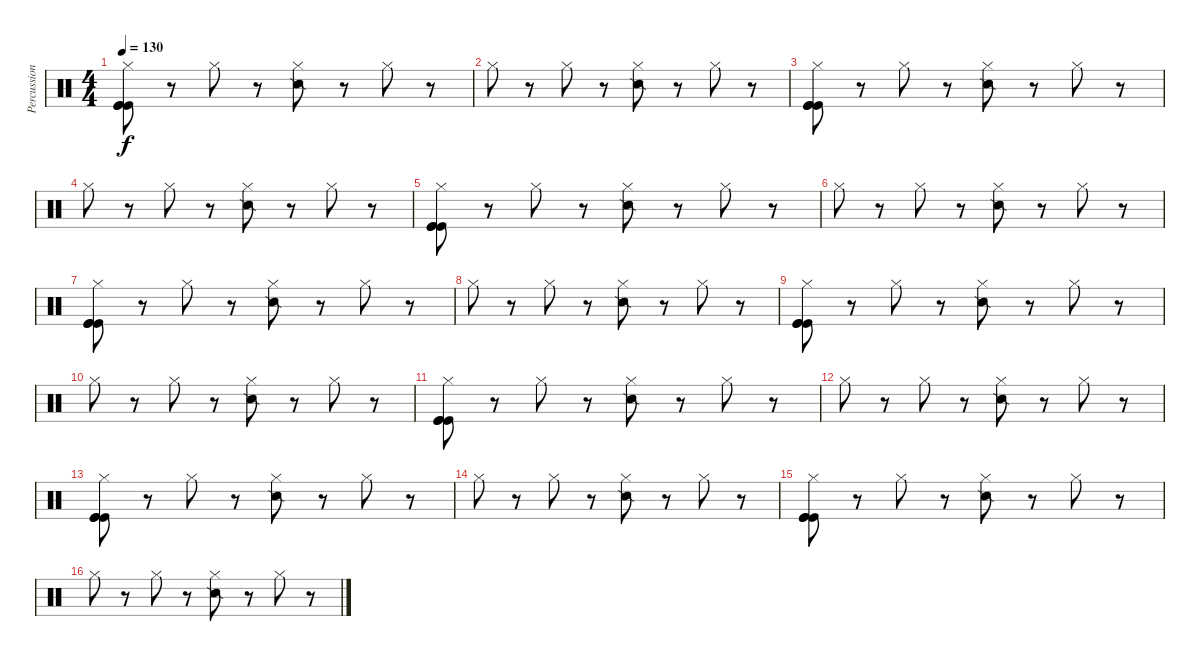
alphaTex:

\track ("Percussion" "Percussion") {instrument percussion}
\staff {score}
\articulation defaults
\ts (4 4)
\tempo 130
\clef neutral
\ks c
("Hi-Hat (closed)" "Kick (hit)" "Kick (hit)" "Kick (hit)").8{dy f} r.8 "Hi-Hat (closed)".8 r.8 ("Hi-Hat (closed)" "Snare (side stick) 2").8 r.8 "Hi-Hat (closed)".8 r.8 |
"Hi-Hat (closed)".8 r.8 "Hi-Hat (closed)".8 r.8 ("Hi-Hat (closed)" "Snare (side stick) 2").8 r.8 "Hi-Hat (closed)".8 r.8 |
("Hi-Hat (closed)" "Kick (hit)" "Kick (hit)" "Kick (hit)").8 r.8 "Hi-Hat (closed)".8 r.8 ("Hi-Hat (closed)" "Snare (side stick) 2").8 r.8 "Hi-Hat (closed)".8 r.8 |
"Hi-Hat (closed)".8 r.8 "Hi-Hat (closed)".8 r.8 ("Hi-Hat (closed)" "Snare (side stick) 2").8 r.8 "Hi-Hat (closed)".8 r.8 |
("Hi-Hat (closed)" "Kick (hit)" "Kick (hit)" "Kick (hit)").8 r.8 "Hi-Hat (closed)".8 r.8 ("Hi-Hat (closed)" "Snare (side stick) 2").8 r.8 "Hi-Hat (closed)".8 r.8 |
"Hi-Hat (closed)".8 r.8 "Hi-Hat (closed)".8 r.8 ("Hi-Hat (closed)" "Snare (side stick) 2").8 r.8 "Hi-Hat (closed)".8 r.8 |
("Hi-Hat (closed)" "Kick (hit)" "Kick (hit)" "Kick (hit)").8 r.8 "Hi-Hat (closed)".8 r.8 ("Hi-Hat (closed)" "Snare (side stick) 2").8 r.8 "Hi-Hat (closed)".8 r.8 |
"Hi-Hat (closed)".8 r.8 "Hi-Hat (closed)".8 r.8 ("Hi-Hat (closed)" "Snare (side stick) 2").8 r.8 "Hi-Hat (closed)".8 r.8 |
("Hi-Hat (closed)" "Kick (hit)" "Kick (hit)" "Kick (hit)").8 r.8 "Hi-Hat (closed)".8 r.8 ("Hi-Hat (closed)" "Snare (side stick) 2").8 r.8 "Hi-Hat (closed)".8 r.8 |
"Hi-Hat (closed)".8 r.8 "Hi-Hat (closed)".8 r.8 ("Hi-Hat (closed)" "Snare (side stick) 2").8 r.8 "Hi-Hat (closed)".8 r.8 |
("Hi-Hat (closed)" "Kick (hit)" "Kick (hit)" "Kick (hit)").8 r.8 "Hi-Hat (closed)".8 r.8 ("Hi-Hat (closed)" "Snare (side stick) 2").8 r.8 "Hi-Hat (closed)".8 r.8 |
"Hi-Hat (closed)".8 r.8 "Hi-Hat (closed)".8 r.8 ("Hi-Hat (closed)" "Snare (side stick) 2").8 r.8 "Hi-Hat (closed)".8 r.8 |
("Hi-Hat (closed)" "Kick (hit)" "Kick (hit)" "Kick (hit)").8 r.8 "Hi-Hat (closed)".8 r.8 ("Hi-Hat (closed)" "Snare (side stick) 2").8 r.8 "Hi-Hat (closed)".8 r.8 |
"Hi-Hat (closed)".8 r.8 "Hi-Hat (closed)".8 r.8 ("Hi-Hat (closed)" "Snare (side stick) 2").8 r.8 "Hi-Hat (closed)".8 r.8 |
("Hi-Hat (closed)" "Kick (hit)" "Kick (hit)" "Kick (hit)").8 r.8 "Hi-Hat (closed)".8 r.8 ("Hi-Hat (closed)" "Snare (side stick) 2").8 r.8 "Hi-Hat (closed)".8 r.8 |
"Hi-Hat (closed)".8 r.8 "Hi-Hat (closed)".8 r.8 ("Hi-Hat (closed)" "Snare (side stick) 2").8 r.8 "Hi-Hat (closed)".8 r.8
